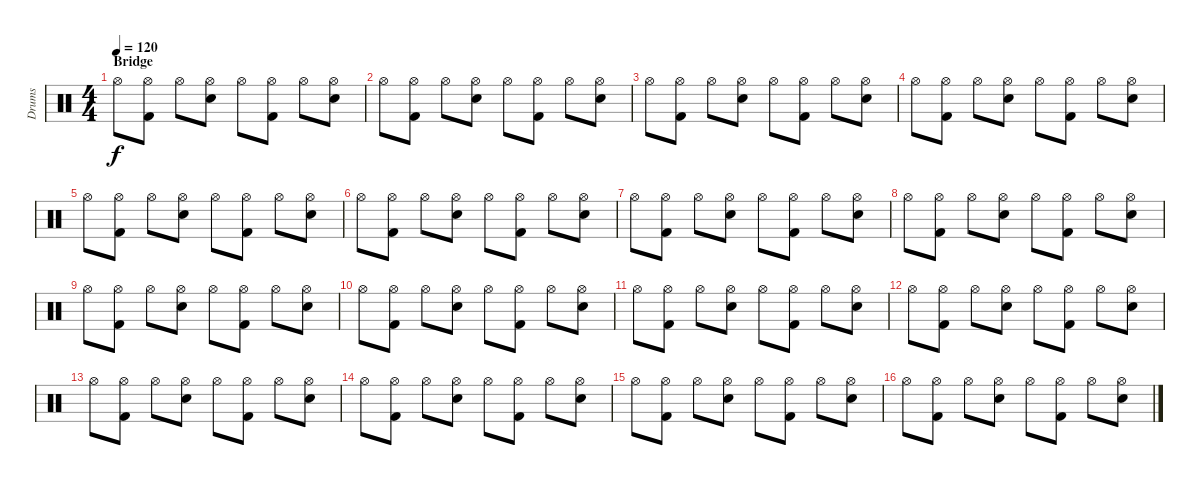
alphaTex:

\track ("Drums" "Drums") {instrument percussion}
\staff {score}
\articulation defaults
\ts (4 4)
\section ("" "Bridge")
\tempo 120
\clef neutral
\ks c "Hi-Hat (open)".8{dy f}
("Hi-Hat (open)" "Kick (hit) 2").8 "Hi-Hat (open)".8 ("Hi-Hat (open)" "Snare (hit) 2").8 "Hi-Hat (open)".8 ("Hi-Hat (open)" "Kick (hit) 2").8 "Hi-Hat (open)".8 ("Hi-Hat (open)" "Snare (hit) 2").8 |
"Hi-Hat (open)".8 ("Hi-Hat (open)" "Kick (hit) 2").8 "Hi-Hat (open)".8 ("Hi-Hat (open)" "Snare (hit) 2").8 "Hi-Hat (open)".8 ("Hi-Hat (open)" "Kick (hit) 2").8 "Hi-Hat (open)".8 ("Hi-Hat (open)" "Snare (hit) 2").8 |
"Hi-Hat (open)".8 ("Hi-Hat (open)" "Kick (hit) 2").8 "Hi-Hat (open)".8 ("Hi-Hat (open)" "Snare (hit) 2").8 "Hi-Hat (open)".8 ("Hi-Hat (open)" "Kick (hit) 2").8 "Hi-Hat (open)".8 ("Hi-Hat (open)" "Snare (hit) 2").8 |
"Hi-Hat (open)".8 ("Hi-Hat (open)" "Kick (hit) 2").8 "Hi-Hat (open)".8 ("Hi-Hat (open)" "Snare (hit) 2").8 "Hi-Hat (open)".8 ("Hi-Hat (open)" "Kick (hit) 2").8 "Hi-Hat (open)".8 ("Hi-Hat (open)" "Snare (hit) 2").8 |
"Hi-Hat (open)".8 ("Hi-Hat (open)" "Kick (hit) 2").8 "Hi-Hat (open)".8 ("Hi-Hat (open)" "Snare (hit) 2").8 "Hi-Hat (open)".8 ("Hi-Hat (open)" "Kick (hit) 2").8 "Hi-Hat (open)".8 ("Hi-Hat (open)" "Snare (hit) 2").8 |
"Hi-Hat (open)".8 ("Hi-Hat (open)" "Kick (hit) 2").8 "Hi-Hat (open)".8 ("Hi-Hat (open)" "Snare (hit) 2").8 "Hi-Hat (open)".8 ("Hi-Hat (open)" "Kick (hit) 2").8 "Hi-Hat (open)".8 ("Hi-Hat (open)" "Snare (hit) 2").8 |
"Hi-Hat (open)".8 ("Hi-Hat (open)" "Kick (hit) 2").8 "Hi-Hat (open)".8 ("Hi-Hat (open)" "Snare (hit) 2").8 "Hi-Hat (open)".8 ("Hi-Hat (open)" "Kick (hit) 2").8 "Hi-Hat (open)".8 ("Hi-Hat (open)" "Snare (hit) 2").8 |
"Hi-Hat (open)".8 ("Hi-Hat (open)" "Kick (hit) 2").8 "Hi-Hat (open)".8 ("Hi-Hat (open)" "Snare (hit) 2").8 "Hi-Hat (open)".8 ("Hi-Hat (open)" "Kick (hit) 2").8 "Hi-Hat (open)".8 ("Hi-Hat (open)" "Snare (hit) 2").8 |
"Hi-Hat (open)".8 ("Hi-Hat (open)" "Kick (hit) 2").8 "Hi-Hat (open)".8 ("Hi-Hat (open)" "Snare (hit) 2").8 "Hi-Hat (open)".8 ("Hi-Hat (open)" "Kick (hit) 2").8 "Hi-Hat (open)".8 ("Hi-Hat (open)" "Snare (hit) 2").8 |
"Hi-Hat (open)".8 ("Hi-Hat (open)" "Kick (hit) 2").8 "Hi-Hat (open)".8 ("Hi-Hat (open)" "Snare (hit) 2").8 "Hi-Hat (open)".8 ("Hi-Hat (open)" "Kick (hit) 2").8 "Hi-Hat (open)".8 ("Hi-Hat (open)" "Snare (hit) 2").8 |
"Hi-Hat (open)".8 ("Hi-Hat (open)" "Kick (hit) 2").8 "Hi-Hat (open)".8 ("Hi-Hat (open)" "Snare (hit) 2").8 "Hi-Hat (open)".8 ("Hi-Hat (open)" "Kick (hit) 2").8 "Hi-Hat (open)".8 ("Hi-Hat (open)" "Snare (hit) 2").8 |
"Hi-Hat (open)".8 ("Hi-Hat (open)" "Kick (hit) 2").8 "Hi-Hat (open)".8 ("Hi-Hat (open)" "Snare (hit) 2").8 "Hi-Hat (open)".8 ("Hi-Hat (open)" "Kick (hit) 2").8 "Hi-Hat (open)".8 ("Hi-Hat (open)" "Snare (hit) 2").8 |
"Hi-Hat (open)".8 ("Hi-Hat (open)" "Kick (hit) 2").8 "Hi-Hat (open)".8 ("Hi-Hat (open)" "Snare (hit) 2").8 "Hi-Hat (open)".8 ("Hi-Hat (open)" "Kick (hit) 2").8 "Hi-Hat (open)".8 ("Hi-Hat (open)" "Snare (hit) 2").8 |
"Hi-Hat (open)".8 ("Hi-Hat (open)" "Kick (hit) 2").8 "Hi-Hat (open)".8 ("Hi-Hat (open)" "Snare (hit) 2").8 "Hi-Hat (open)".8 ("Hi-Hat (open)" "Kick (hit) 2").8 "Hi-Hat (open)".8 ("Hi-Hat (open)" "Snare (hit) 2").8 |
"Hi-Hat (open)".8 ("Hi-Hat (open)" "Kick (hit) 2").8 "Hi-Hat (open)".8 ("Hi-Hat (open)" "Snare (hit) 2").8 "Hi-Hat (open)".8 ("Hi-Hat (open)" "Kick (hit) 2").8 "Hi-Hat (open)".8 ("Hi-Hat (open)" "Snare (hit) 2").8 |
"Hi-Hat (open)".8 ("Hi-Hat (open)" "Kick (hit) 2").8 "Hi-Hat (open)".8 ("Hi-Hat (open)" "Snare (hit) 2").8 "Hi-Hat (open)".8 ("Hi-Hat (open)" "Kick (hit) 2").8 "Hi-Hat (open)".8 ("Hi-Hat (open)" "Snare (hit) 2").8
